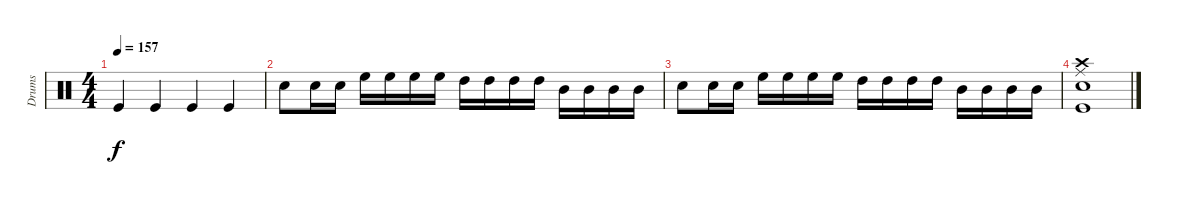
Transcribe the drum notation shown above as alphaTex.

\track ("Drums" "Drums") {instrument percussion}
\staff {score}
\articulation defaults
\ts (4 4)
\tempo 157
\clef neutral
\ks c "Kick (hit)".4{dy f} "Kick (hit)".4 "Kick (hit)".4 "Kick (hit)".4
|
"Snare (hit) 2".8 "Snare (hit) 2".16 "Snare (hit) 2".16 "High Floor Tom (hit)".16 "High Floor Tom (hit)".16 "High Floor Tom (hit)".16 "High Floor Tom (hit)".16 "High Tom (hit)".16 "High Tom (hit)".16 "High Tom (hit)".16 "High Tom (hit)".16 "Mid Tom (hit)".16 "Mid Tom (hit)".16 "Mid Tom (hit)".16 "Mid Tom (hit)".16 |
"Snare (hit) 2".8 "Snare (hit) 2".16 "Snare (hit) 2".16 "High Floor Tom (hit)".16 "High Floor Tom (hit)".16 "High Floor Tom (hit)".16 "High Floor Tom (hit)".16 "High Tom (hit)".16 "High Tom (hit)".16 "High Tom (hit)".16 "High Tom (hit)".16 "Mid Tom (hit)".16 "Mid Tom (hit)".16 "Mid Tom (hit)".16 "Mid Tom (hit)".16 |
("Ride (middle)" "Crash high (hit)" "Kick (hit)" "Snare (hit) 2").1
